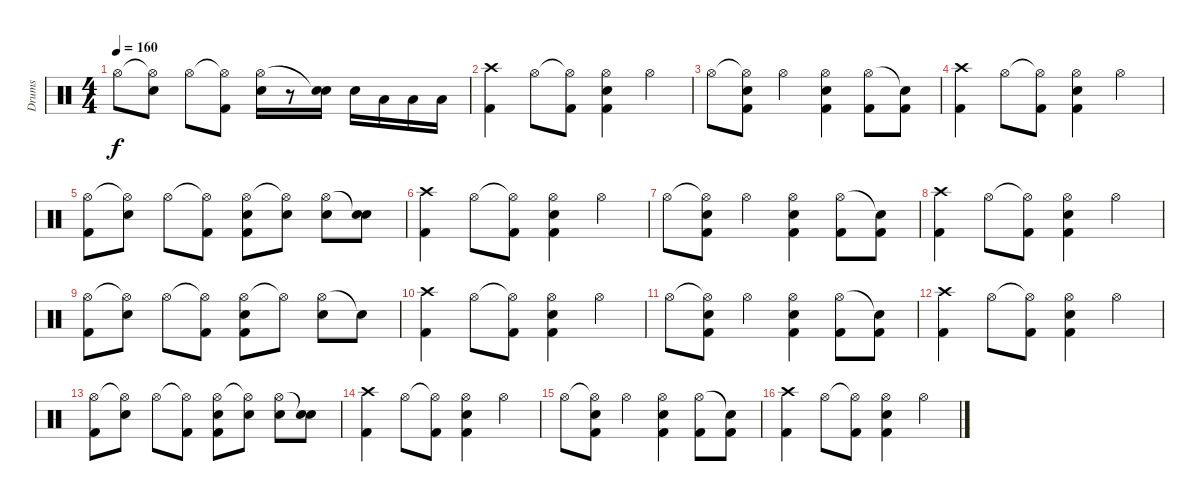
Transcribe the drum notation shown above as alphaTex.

\track ("Drums" "Drums") {instrument percussion}
\staff {score}
\articulation defaults
\ts (4 4)
\tempo 160
\clef neutral
\ks c "Hi-Hat (open)".8{dy f}
("Hi-Hat (open)"{t} "Snare (hit) 2").8 "Hi-Hat (open)".8 ("Hi-Hat (open)"{t} "Kick (hit) 2").8 ("Hi-Hat (open)" "Snare (hit) 2").16 r.8 ("Snare (hit)"{t} "Snare (hit) 2").16 "Snare (hit) 2".16 "Low Tom (hit)".16 "Low Tom (hit)".16 "Low Floor Tom (hit)".16 |
("Crash high (hit)" "Kick (hit) 2").4 "Hi-Hat (open)".8 ("Hi-Hat (open)"{t} "Kick (hit) 2").8 ("Hi-Hat (open)" "Snare (hit) 2" "Kick (hit) 2").4 "Hi-Hat (open)".4 |
"Hi-Hat (open)".8 ("Hi-Hat (open)"{t} "Snare (hit) 2" "Kick (hit) 2").8 "Hi-Hat (open)".4 ("Hi-Hat (open)" "Snare (hit) 2" "Kick (hit) 2").4 ("Hi-Hat (open)" "Kick (hit) 2").8 ("Snare (hit)"{t} "Kick (hit) 2").8 |
("Crash high (hit)" "Kick (hit) 2").4 "Hi-Hat (open)".8 ("Hi-Hat (open)"{t} "Kick (hit) 2").8 ("Hi-Hat (open)" "Snare (hit) 2" "Kick (hit) 2").4 "Hi-Hat (open)".4 |
("Hi-Hat (open)" "Kick (hit) 2").8 ("Hi-Hat (open)"{t} "Snare (hit) 2").8 "Hi-Hat (open)".8 ("Hi-Hat (open)"{t} "Kick (hit) 2").8 ("Hi-Hat (open)" "Snare (hit) 2" "Kick (hit) 2").8 ("Hi-Hat (open)"{t} "Snare (hit) 2").8 ("Hi-Hat (open)" "Snare (hit) 2").8 ("Snare (hit)"{t} "Snare (hit) 2").8 |
("Crash high (hit)" "Kick (hit) 2").4 "Hi-Hat (open)".8 ("Hi-Hat (open)"{t} "Kick (hit) 2").8 ("Hi-Hat (open)" "Snare (hit) 2" "Kick (hit) 2").4 "Hi-Hat (open)".4 |
"Hi-Hat (open)".8 ("Hi-Hat (open)"{t} "Snare (hit) 2" "Kick (hit) 2").8 "Hi-Hat (open)".4 ("Hi-Hat (open)" "Snare (hit) 2" "Kick (hit) 2").4 ("Hi-Hat (open)" "Kick (hit) 2").8 ("Snare (hit)"{t} "Kick (hit) 2").8 |
("Crash high (hit)" "Kick (hit) 2").4 "Hi-Hat (open)".8 ("Hi-Hat (open)"{t} "Kick (hit) 2").8 ("Hi-Hat (open)" "Snare (hit) 2" "Kick (hit) 2").4 "Hi-Hat (open)".4 |
("Hi-Hat (open)" "Kick (hit) 2").8 ("Hi-Hat (open)"{t} "Snare (hit) 2").8 "Hi-Hat (open)".8 ("Hi-Hat (open)"{t} "Kick (hit) 2").8 ("Hi-Hat (open)" "Snare (hit) 2" "Kick (hit) 2").8 "Hi-Hat (open)"{t}.8 ("Hi-Hat (open)" "Snare (hit) 2"{tr (38 32)}).8 "Snare (hit)"{t}.8 |
("Crash high (hit)" "Kick (hit) 2").4 "Hi-Hat (open)".8 ("Hi-Hat (open)"{t} "Kick (hit) 2").8 ("Hi-Hat (open)" "Snare (hit) 2" "Kick (hit) 2").4 "Hi-Hat (open)".4 |
"Hi-Hat (open)".8 ("Hi-Hat (open)"{t} "Snare (hit) 2" "Kick (hit) 2").8 "Hi-Hat (open)".4 ("Hi-Hat (open)" "Snare (hit) 2" "Kick (hit) 2").4 ("Hi-Hat (open)" "Kick (hit) 2").8 ("Snare (hit)"{t} "Kick (hit) 2").8 |
("Crash high (hit)" "Kick (hit) 2").4 "Hi-Hat (open)".8 ("Hi-Hat (open)"{t} "Kick (hit) 2").8 ("Hi-Hat (open)" "Snare (hit) 2" "Kick (hit) 2").4 "Hi-Hat (open)".4 |
("Hi-Hat (open)" "Kick (hit) 2").8 ("Hi-Hat (open)"{t} "Snare (hit) 2").8 "Hi-Hat (open)".8 ("Hi-Hat (open)"{t} "Kick (hit) 2").8 ("Hi-Hat (open)" "Snare (hit) 2" "Kick (hit) 2").8 ("Hi-Hat (open)"{t} "Snare (hit) 2").8 ("Hi-Hat (open)" "Snare (hit) 2").8 ("Snare (hit)"{t} "Snare (hit) 2").8 |
("Crash high (hit)" "Kick (hit) 2").4 "Hi-Hat (open)".8 ("Hi-Hat (open)"{t} "Kick (hit) 2").8 ("Hi-Hat (open)" "Snare (hit) 2" "Kick (hit) 2").4 "Hi-Hat (open)".4 |
"Hi-Hat (open)".8 ("Hi-Hat (open)"{t} "Snare (hit) 2" "Kick (hit) 2").8 "Hi-Hat (open)".4 ("Hi-Hat (open)" "Snare (hit) 2" "Kick (hit) 2").4 ("Hi-Hat (open)" "Kick (hit) 2").8 ("Snare (hit)"{t} "Kick (hit) 2").8 |
("Crash high (hit)" "Kick (hit) 2").4 "Hi-Hat (open)".8 ("Hi-Hat (open)"{t} "Kick (hit) 2").8 ("Hi-Hat (open)" "Snare (hit) 2" "Kick (hit) 2").4 "Hi-Hat (open)".4
